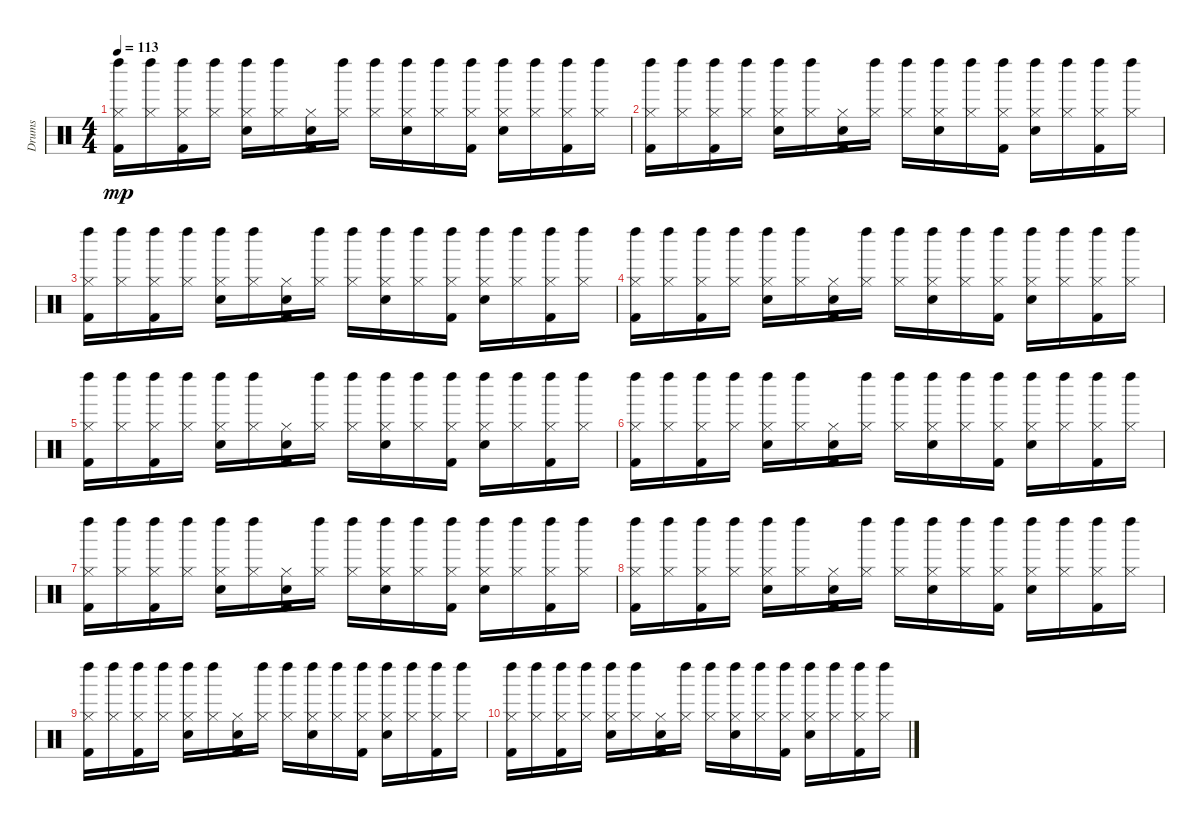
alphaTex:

\track ("Drums" "Drums") {instrument percussion}
\staff {score}
\articulation defaults
\ts (4 4)
\tempo 113
\clef neutral
\ks c
("Hi-Hat (closed)" "Left Maraca (hit)" "Kick (hit) 2").16{dy mp} ("Hi-Hat (closed)" "Left Maraca (hit)").16 ("Hi-Hat (closed)" "Left Maraca (hit)" "Kick (hit) 2").16 ("Hi-Hat (closed)" "Left Maraca (hit)").16 ("Hi-Hat (closed)" "Left Maraca (hit)" "Snare (hit) 2").16 ("Hi-Hat (closed)" "Left Maraca (hit)").16 ("Hi-Hat (closed)" "Snare (hit)" "Kick (hit) 2").16 ("Hi-Hat (closed)" "Left Maraca (hit)").16 ("Hi-Hat (closed)" "Left Maraca (hit)").16 ("Hi-Hat (closed)" "Left Maraca (hit)" "Snare (hit) 2").16 ("Hi-Hat (closed)" "Left Maraca (hit)").16 ("Hi-Hat (closed)" "Left Maraca (hit)" "Kick (hit) 2").16 ("Hi-Hat (closed)" "Left Maraca (hit)" "Snare (hit) 2").16 ("Hi-Hat (closed)" "Left Maraca (hit)").16 ("Hi-Hat (closed)" "Left Maraca (hit)" "Kick (hit) 2").16 ("Hi-Hat (closed)" "Left Maraca (hit)").16 |
("Hi-Hat (closed)" "Left Maraca (hit)" "Kick (hit) 2").16 ("Hi-Hat (closed)" "Left Maraca (hit)").16 ("Hi-Hat (closed)" "Left Maraca (hit)" "Kick (hit) 2").16 ("Hi-Hat (closed)" "Left Maraca (hit)").16 ("Hi-Hat (closed)" "Left Maraca (hit)" "Snare (hit) 2").16 ("Hi-Hat (closed)" "Left Maraca (hit)").16 ("Hi-Hat (closed)" "Snare (hit)" "Kick (hit) 2").16 ("Hi-Hat (closed)" "Left Maraca (hit)").16 ("Hi-Hat (closed)" "Left Maraca (hit)").16 ("Hi-Hat (closed)" "Left Maraca (hit)" "Snare (hit) 2").16 ("Hi-Hat (closed)" "Left Maraca (hit)").16 ("Hi-Hat (closed)" "Left Maraca (hit)" "Kick (hit) 2").16 ("Hi-Hat (closed)" "Left Maraca (hit)" "Snare (hit) 2").16 ("Hi-Hat (closed)" "Left Maraca (hit)").16 ("Hi-Hat (closed)" "Left Maraca (hit)" "Kick (hit) 2").16 ("Hi-Hat (closed)" "Left Maraca (hit)").16 |
("Hi-Hat (closed)" "Left Maraca (hit)" "Kick (hit) 2").16 ("Hi-Hat (closed)" "Left Maraca (hit)").16 ("Hi-Hat (closed)" "Left Maraca (hit)" "Kick (hit) 2").16 ("Hi-Hat (closed)" "Left Maraca (hit)").16 ("Hi-Hat (closed)" "Left Maraca (hit)" "Snare (hit) 2").16 ("Hi-Hat (closed)" "Left Maraca (hit)").16 ("Hi-Hat (closed)" "Snare (hit)" "Kick (hit) 2").16 ("Hi-Hat (closed)" "Left Maraca (hit)").16 ("Hi-Hat (closed)" "Left Maraca (hit)").16 ("Hi-Hat (closed)" "Left Maraca (hit)" "Snare (hit) 2").16 ("Hi-Hat (closed)" "Left Maraca (hit)").16 ("Hi-Hat (closed)" "Left Maraca (hit)" "Kick (hit) 2").16 ("Hi-Hat (closed)" "Left Maraca (hit)" "Snare (hit) 2").16 ("Hi-Hat (closed)" "Left Maraca (hit)").16 ("Hi-Hat (closed)" "Left Maraca (hit)" "Kick (hit) 2").16 ("Hi-Hat (closed)" "Left Maraca (hit)").16 |
("Hi-Hat (closed)" "Left Maraca (hit)" "Kick (hit) 2").16 ("Hi-Hat (closed)" "Left Maraca (hit)").16 ("Hi-Hat (closed)" "Left Maraca (hit)" "Kick (hit) 2").16 ("Hi-Hat (closed)" "Left Maraca (hit)").16 ("Hi-Hat (closed)" "Left Maraca (hit)" "Snare (hit) 2").16 ("Hi-Hat (closed)" "Left Maraca (hit)").16 ("Hi-Hat (closed)" "Snare (hit)" "Kick (hit) 2").16 ("Hi-Hat (closed)" "Left Maraca (hit)").16 ("Hi-Hat (closed)" "Left Maraca (hit)").16 ("Hi-Hat (closed)" "Left Maraca (hit)" "Snare (hit) 2").16 ("Hi-Hat (closed)" "Left Maraca (hit)").16 ("Hi-Hat (closed)" "Left Maraca (hit)" "Kick (hit) 2").16 ("Hi-Hat (closed)" "Left Maraca (hit)" "Snare (hit) 2").16 ("Hi-Hat (closed)" "Left Maraca (hit)").16 ("Hi-Hat (closed)" "Left Maraca (hit)" "Kick (hit) 2").16 ("Hi-Hat (closed)" "Left Maraca (hit)").16 |
("Hi-Hat (closed)" "Left Maraca (hit)" "Kick (hit) 2").16 ("Hi-Hat (closed)" "Left Maraca (hit)").16 ("Hi-Hat (closed)" "Left Maraca (hit)" "Kick (hit) 2").16 ("Hi-Hat (closed)" "Left Maraca (hit)").16 ("Hi-Hat (closed)" "Left Maraca (hit)" "Snare (hit) 2").16 ("Hi-Hat (closed)" "Left Maraca (hit)").16 ("Hi-Hat (closed)" "Snare (hit)" "Kick (hit) 2").16 ("Hi-Hat (closed)" "Left Maraca (hit)").16 ("Hi-Hat (closed)" "Left Maraca (hit)").16 ("Hi-Hat (closed)" "Left Maraca (hit)" "Snare (hit) 2").16 ("Hi-Hat (closed)" "Left Maraca (hit)").16 ("Hi-Hat (closed)" "Left Maraca (hit)" "Kick (hit) 2").16 ("Hi-Hat (closed)" "Left Maraca (hit)" "Snare (hit) 2").16 ("Hi-Hat (closed)" "Left Maraca (hit)").16 ("Hi-Hat (closed)" "Left Maraca (hit)" "Kick (hit) 2").16 ("Hi-Hat (closed)" "Left Maraca (hit)").16 |
("Hi-Hat (closed)" "Left Maraca (hit)" "Kick (hit) 2").16 ("Hi-Hat (closed)" "Left Maraca (hit)").16 ("Hi-Hat (closed)" "Left Maraca (hit)" "Kick (hit) 2").16 ("Hi-Hat (closed)" "Left Maraca (hit)").16 ("Hi-Hat (closed)" "Left Maraca (hit)" "Snare (hit) 2").16 ("Hi-Hat (closed)" "Left Maraca (hit)").16 ("Hi-Hat (closed)" "Snare (hit)" "Kick (hit) 2").16 ("Hi-Hat (closed)" "Left Maraca (hit)").16 ("Hi-Hat (closed)" "Left Maraca (hit)").16 ("Hi-Hat (closed)" "Left Maraca (hit)" "Snare (hit) 2").16 ("Hi-Hat (closed)" "Left Maraca (hit)").16 ("Hi-Hat (closed)" "Left Maraca (hit)" "Kick (hit) 2").16 ("Hi-Hat (closed)" "Left Maraca (hit)" "Snare (hit) 2").16 ("Hi-Hat (closed)" "Left Maraca (hit)").16 ("Hi-Hat (closed)" "Left Maraca (hit)" "Kick (hit) 2").16 ("Hi-Hat (closed)" "Left Maraca (hit)").16 |
("Hi-Hat (closed)" "Left Maraca (hit)" "Kick (hit) 2").16 ("Hi-Hat (closed)" "Left Maraca (hit)").16 ("Hi-Hat (closed)" "Left Maraca (hit)" "Kick (hit) 2").16 ("Hi-Hat (closed)" "Left Maraca (hit)").16 ("Hi-Hat (closed)" "Left Maraca (hit)" "Snare (hit) 2").16 ("Hi-Hat (closed)" "Left Maraca (hit)").16 ("Hi-Hat (closed)" "Snare (hit)" "Kick (hit) 2").16 ("Hi-Hat (closed)" "Left Maraca (hit)").16 ("Hi-Hat (closed)" "Left Maraca (hit)").16 ("Hi-Hat (closed)" "Left Maraca (hit)" "Snare (hit) 2").16 ("Hi-Hat (closed)" "Left Maraca (hit)").16 ("Hi-Hat (closed)" "Left Maraca (hit)" "Kick (hit) 2").16 ("Hi-Hat (closed)" "Left Maraca (hit)" "Snare (hit) 2").16 ("Hi-Hat (closed)" "Left Maraca (hit)").16 ("Hi-Hat (closed)" "Left Maraca (hit)" "Kick (hit) 2").16 ("Hi-Hat (closed)" "Left Maraca (hit)").16 |
("Hi-Hat (closed)" "Left Maraca (hit)" "Kick (hit) 2").16 ("Hi-Hat (closed)" "Left Maraca (hit)").16 ("Hi-Hat (closed)" "Left Maraca (hit)" "Kick (hit) 2").16 ("Hi-Hat (closed)" "Left Maraca (hit)").16 ("Hi-Hat (closed)" "Left Maraca (hit)" "Snare (hit) 2").16 ("Hi-Hat (closed)" "Left Maraca (hit)").16 ("Hi-Hat (closed)" "Snare (hit)" "Kick (hit) 2").16 ("Hi-Hat (closed)" "Left Maraca (hit)").16 ("Hi-Hat (closed)" "Left Maraca (hit)").16 ("Hi-Hat (closed)" "Left Maraca (hit)" "Snare (hit) 2").16 ("Hi-Hat (closed)" "Left Maraca (hit)").16 ("Hi-Hat (closed)" "Left Maraca (hit)" "Kick (hit) 2").16 ("Hi-Hat (closed)" "Left Maraca (hit)" "Snare (hit) 2").16 ("Hi-Hat (closed)" "Left Maraca (hit)").16 ("Hi-Hat (closed)" "Left Maraca (hit)" "Kick (hit) 2").16 ("Hi-Hat (closed)" "Left Maraca (hit)").16 |
("Hi-Hat (closed)" "Left Maraca (hit)" "Kick (hit) 2").16 ("Hi-Hat (closed)" "Left Maraca (hit)").16 ("Hi-Hat (closed)" "Left Maraca (hit)" "Kick (hit) 2").16 ("Hi-Hat (closed)" "Left Maraca (hit)").16 ("Hi-Hat (closed)" "Left Maraca (hit)" "Snare (hit) 2").16 ("Hi-Hat (closed)" "Left Maraca (hit)").16 ("Hi-Hat (closed)" "Snare (hit)" "Kick (hit) 2").16 ("Hi-Hat (closed)" "Left Maraca (hit)").16 ("Hi-Hat (closed)" "Left Maraca (hit)").16 ("Hi-Hat (closed)" "Left Maraca (hit)" "Snare (hit) 2").16 ("Hi-Hat (closed)" "Left Maraca (hit)").16 ("Hi-Hat (closed)" "Left Maraca (hit)" "Kick (hit) 2").16 ("Hi-Hat (closed)" "Left Maraca (hit)" "Snare (hit) 2").16 ("Hi-Hat (closed)" "Left Maraca (hit)").16 ("Hi-Hat (closed)" "Left Maraca (hit)" "Kick (hit) 2").16 ("Hi-Hat (closed)" "Left Maraca (hit)").16 |
("Hi-Hat (closed)" "Left Maraca (hit)" "Kick (hit) 2").16 ("Hi-Hat (closed)" "Left Maraca (hit)").16 ("Hi-Hat (closed)" "Left Maraca (hit)" "Kick (hit) 2").16 ("Hi-Hat (closed)" "Left Maraca (hit)").16 ("Hi-Hat (closed)" "Left Maraca (hit)" "Snare (hit) 2").16 ("Hi-Hat (closed)" "Left Maraca (hit)").16 ("Hi-Hat (closed)" "Snare (hit)" "Kick (hit) 2").16 ("Hi-Hat (closed)" "Left Maraca (hit)").16 ("Hi-Hat (closed)" "Left Maraca (hit)").16 ("Hi-Hat (closed)" "Left Maraca (hit)" "Snare (hit) 2").16 ("Hi-Hat (closed)" "Left Maraca (hit)").16 ("Hi-Hat (closed)" "Left Maraca (hit)" "Kick (hit) 2").16 ("Hi-Hat (closed)" "Left Maraca (hit)" "Snare (hit) 2").16 ("Hi-Hat (closed)" "Left Maraca (hit)").16 ("Hi-Hat (closed)" "Left Maraca (hit)" "Kick (hit) 2").16 ("Hi-Hat (closed)" "Left Maraca (hit)").16
